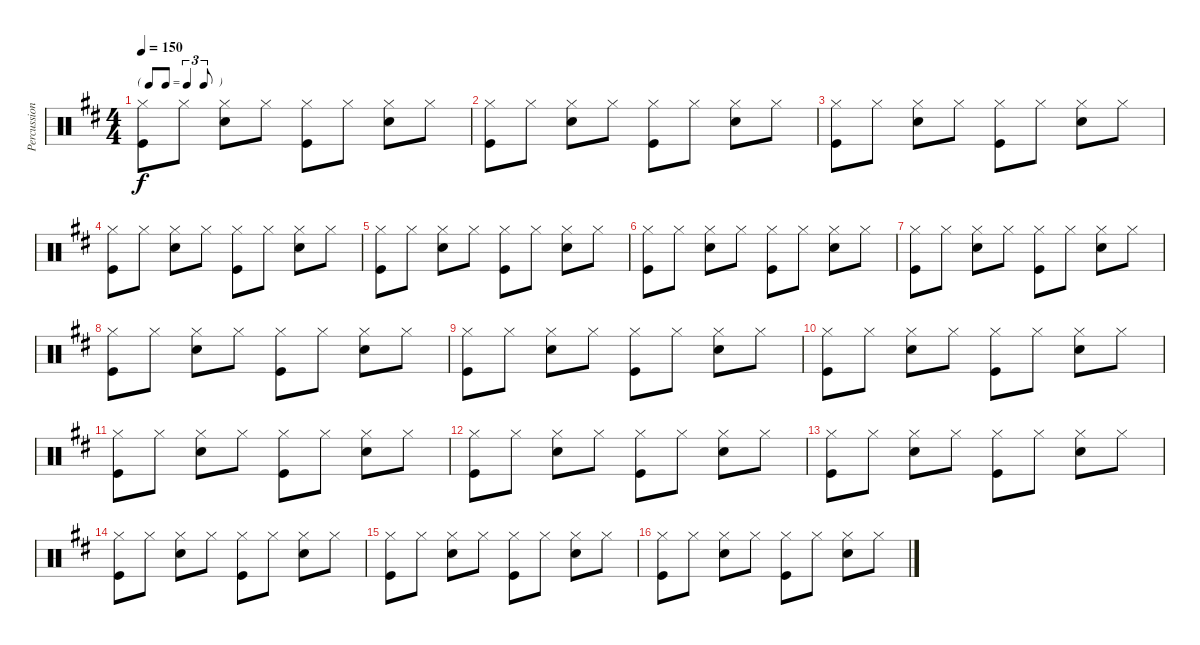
\track ("Percussion" "Percussion") {instrument percussion}
\staff {score}
\articulation defaults
\ts (4 4)
\tf triplet8th
\tempo 150
\clef neutral
\ks d
("Hi-Hat (closed)" "Kick (hit)").8{dy f} "Hi-Hat (closed)".8 ("Hi-Hat (closed)" "Snare (hit) 2").8 "Hi-Hat (closed)".8 ("Hi-Hat (closed)" "Kick (hit)").8 "Hi-Hat (closed)".8 ("Hi-Hat (closed)" "Snare (hit) 2").8 "Hi-Hat (closed)".8 |
("Hi-Hat (closed)" "Kick (hit)").8 "Hi-Hat (closed)".8 ("Hi-Hat (closed)" "Snare (hit) 2").8 "Hi-Hat (closed)".8 ("Hi-Hat (closed)" "Kick (hit)").8 "Hi-Hat (closed)".8 ("Hi-Hat (closed)" "Snare (hit) 2").8 "Hi-Hat (closed)".8 |
("Hi-Hat (closed)" "Kick (hit)").8 "Hi-Hat (closed)".8 ("Hi-Hat (closed)" "Snare (hit) 2").8 "Hi-Hat (closed)".8 ("Hi-Hat (closed)" "Kick (hit)").8 "Hi-Hat (closed)".8 ("Hi-Hat (closed)" "Snare (hit) 2").8 "Hi-Hat (closed)".8 |
("Hi-Hat (closed)" "Kick (hit)").8 "Hi-Hat (closed)".8 ("Hi-Hat (closed)" "Snare (hit) 2").8 "Hi-Hat (closed)".8 ("Hi-Hat (closed)" "Kick (hit)").8 "Hi-Hat (closed)".8 ("Hi-Hat (closed)" "Snare (hit) 2").8 "Hi-Hat (closed)".8 |
("Hi-Hat (closed)" "Kick (hit)").8 "Hi-Hat (closed)".8 ("Hi-Hat (closed)" "Snare (hit) 2").8 "Hi-Hat (closed)".8 ("Hi-Hat (closed)" "Kick (hit)").8 "Hi-Hat (closed)".8 ("Hi-Hat (closed)" "Snare (hit) 2").8 "Hi-Hat (closed)".8 |
("Hi-Hat (closed)" "Kick (hit)").8 "Hi-Hat (closed)".8 ("Hi-Hat (closed)" "Snare (hit) 2").8 "Hi-Hat (closed)".8 ("Hi-Hat (closed)" "Kick (hit)").8 "Hi-Hat (closed)".8 ("Hi-Hat (closed)" "Snare (hit) 2").8 "Hi-Hat (closed)".8 |
("Hi-Hat (closed)" "Kick (hit)").8 "Hi-Hat (closed)".8 ("Hi-Hat (closed)" "Snare (hit) 2").8 "Hi-Hat (closed)".8 ("Hi-Hat (closed)" "Kick (hit)").8 "Hi-Hat (closed)".8 ("Hi-Hat (closed)" "Snare (hit) 2").8 "Hi-Hat (closed)".8 |
("Hi-Hat (closed)" "Kick (hit)").8 "Hi-Hat (closed)".8 ("Hi-Hat (closed)" "Snare (hit) 2").8 "Hi-Hat (closed)".8 ("Hi-Hat (closed)" "Kick (hit)").8 "Hi-Hat (closed)".8 ("Hi-Hat (closed)" "Snare (hit) 2").8 "Hi-Hat (closed)".8 |
("Hi-Hat (closed)" "Kick (hit)").8 "Hi-Hat (closed)".8 ("Hi-Hat (closed)" "Snare (hit) 2").8 "Hi-Hat (closed)".8 ("Hi-Hat (closed)" "Kick (hit)").8 "Hi-Hat (closed)".8 ("Hi-Hat (closed)" "Snare (hit) 2").8 "Hi-Hat (closed)".8 |
("Hi-Hat (closed)" "Kick (hit)").8 "Hi-Hat (closed)".8 ("Hi-Hat (closed)" "Snare (hit) 2").8 "Hi-Hat (closed)".8 ("Hi-Hat (closed)" "Kick (hit)").8 "Hi-Hat (closed)".8 ("Hi-Hat (closed)" "Snare (hit) 2").8 "Hi-Hat (closed)".8 |
("Hi-Hat (closed)" "Kick (hit)").8 "Hi-Hat (closed)".8 ("Hi-Hat (closed)" "Snare (hit) 2").8 "Hi-Hat (closed)".8 ("Hi-Hat (closed)" "Kick (hit)").8 "Hi-Hat (closed)".8 ("Hi-Hat (closed)" "Snare (hit) 2").8 "Hi-Hat (closed)".8 |
("Hi-Hat (closed)" "Kick (hit)").8 "Hi-Hat (closed)".8 ("Hi-Hat (closed)" "Snare (hit) 2").8 "Hi-Hat (closed)".8 ("Hi-Hat (closed)" "Kick (hit)").8 "Hi-Hat (closed)".8 ("Hi-Hat (closed)" "Snare (hit) 2").8 "Hi-Hat (closed)".8 |
("Hi-Hat (closed)" "Kick (hit)").8 "Hi-Hat (closed)".8 ("Hi-Hat (closed)" "Snare (hit) 2").8 "Hi-Hat (closed)".8 ("Hi-Hat (closed)" "Kick (hit)").8 "Hi-Hat (closed)".8 ("Hi-Hat (closed)" "Snare (hit) 2").8 "Hi-Hat (closed)".8 |
("Hi-Hat (closed)" "Kick (hit)").8 "Hi-Hat (closed)".8 ("Hi-Hat (closed)" "Snare (hit) 2").8 "Hi-Hat (closed)".8 ("Hi-Hat (closed)" "Kick (hit)").8 "Hi-Hat (closed)".8 ("Hi-Hat (closed)" "Snare (hit) 2").8 "Hi-Hat (closed)".8 |
("Hi-Hat (closed)" "Kick (hit)").8 "Hi-Hat (closed)".8 ("Hi-Hat (closed)" "Snare (hit) 2").8 "Hi-Hat (closed)".8 ("Hi-Hat (closed)" "Kick (hit)").8 "Hi-Hat (closed)".8 ("Hi-Hat (closed)" "Snare (hit) 2").8 "Hi-Hat (closed)".8 |
("Hi-Hat (closed)" "Kick (hit)").8 "Hi-Hat (closed)".8 ("Hi-Hat (closed)" "Snare (hit) 2").8 "Hi-Hat (closed)".8 ("Hi-Hat (closed)" "Kick (hit)").8 "Hi-Hat (closed)".8 ("Hi-Hat (closed)" "Snare (hit) 2").8 "Hi-Hat (closed)".8
